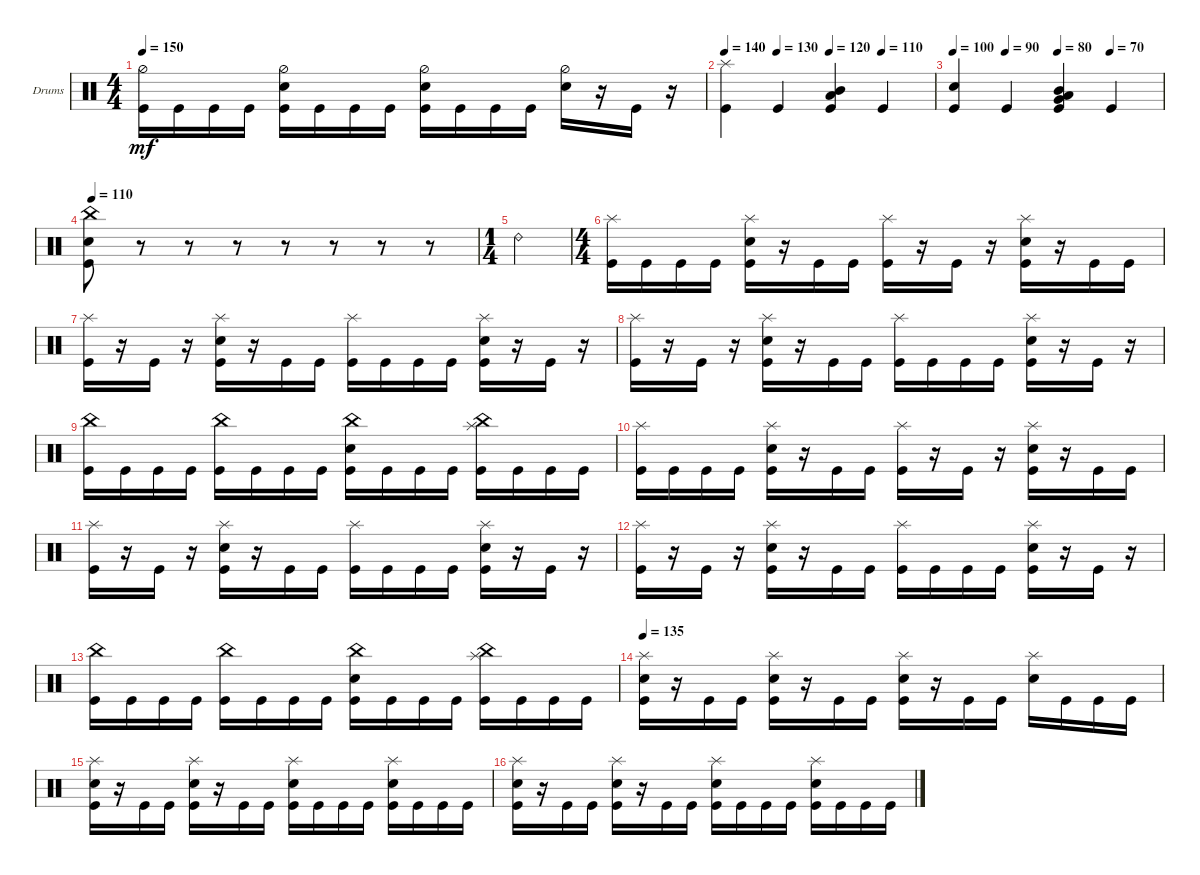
\defaultSystemsLayout 4
\bracketExtendMode groupsimilarinstruments
\firstSystemTrackNameOrientation horizontal
\otherSystemsTrackNameOrientation horizontal
\track ("Drumkit" "Drums") {instrument percussion}
\staff {score}
\articulation defaults
\ts (4 4)
\tempo 150
\clef neutral
\ks c
("Hi-Hat (half)" "Kick (hit)").16{dy mf} "Kick (hit)".16 "Kick (hit)".16 "Kick (hit)".16 ("Hi-Hat (half)" "Snare (hit) 2" "Kick (hit)").16 "Kick (hit)".16 "Kick (hit)".16 "Kick (hit)".16 ("Hi-Hat (half)" "Kick (hit)" "Snare (hit) 2").16 "Kick (hit)".16 "Kick (hit)".16 "Kick (hit)".16 ("Hi-Hat (half)" "Snare (hit) 2").16 r.16 "Kick (hit)".16 r.16 |
\tempo 140
\tempo (130 0.25)
\tempo (120 0.5)
\tempo (110 0.75)
("Kick (hit)" "Splash (hit)").4 "Kick (hit)".4 ("Kick (hit)" "Mid Tom (hit)" "Low Tom (hit)").4 "Kick (hit)".4 |
\tempo 100
\tempo (90 0.25)
\tempo (80 0.5)
\tempo (70 0.75)
("Kick (hit)" "Snare (hit) 2").4 "Kick (hit)".4 ("Kick (hit)" "Low Tom (hit)" "Mid Tom (hit)" "Very Low Tom (hit)").4 "Kick (hit)".4 |
\tempo 110
("Kick (hit)" "Snare (hit) 2" "China (hit)").8 r.8 r.8 r.8 r.8 r.8 r.8 r.8 |
\ts (1 4)
"Ride (bell) 2".4 |
\ts (4 4)
("Kick (hit)" "Splash (hit)").16 "Kick (hit)".16 "Kick (hit)".16 "Kick (hit)".16 ("Kick (hit)" "Splash (hit)" "Snare (hit) 2").16 r.16 "Kick (hit)".16 "Kick (hit)".16 ("Kick (hit)" "Splash (hit)").16 r.16 "Kick (hit)".16 r.16 ("Kick (hit)" "Splash (hit)" "Snare (hit) 2").16 r.16 "Kick (hit)".16 "Kick (hit)".16 |
("Kick (hit)" "Splash (hit)").16 r.16 "Kick (hit)".16 r.16 ("Kick (hit)" "Splash (hit)" "Snare (hit) 2").16 r.16 "Kick (hit)".16 "Kick (hit)".16 ("Splash (hit)" "Kick (hit)").16 "Kick (hit)".16 "Kick (hit)".16 "Kick (hit)".16 ("Kick (hit)" "Splash (hit)" "Snare (hit) 2").16 r.16 "Kick (hit)".16 r.16 |
("Kick (hit)" "Splash (hit)").16 r.16 "Kick (hit)".16 r.16 ("Kick (hit)" "Splash (hit)" "Snare (hit) 2").16 r.16 "Kick (hit)".16 "Kick (hit)".16 ("Splash (hit)" "Kick (hit)").16 "Kick (hit)".16 "Kick (hit)".16 "Kick (hit)".16 ("Kick (hit)" "Splash (hit)" "Snare (hit) 2").16 r.16 "Kick (hit)".16 r.16 |
("Kick (hit)" "China (hit)").16 "Kick (hit)".16 "Kick (hit)".16 "Kick (hit)".16 ("Kick (hit)" "China (hit)").16 "Kick (hit)".16 "Kick (hit)".16 "Kick (hit)".16 ("Kick (hit)" "China (hit)" "Snare (hit) 2").16 "Kick (hit)".16 "Kick (hit)".16 "Kick (hit)".16 ("Kick (hit)" "China (hit)" "Splash (hit)").16 "Kick (hit)".16 "Kick (hit)".16 "Kick (hit)".16 |
("Kick (hit)" "Splash (hit)").16 "Kick (hit)".16 "Kick (hit)".16 "Kick (hit)".16 ("Kick (hit)" "Splash (hit)" "Snare (hit) 2").16 r.16 "Kick (hit)".16 "Kick (hit)".16 ("Kick (hit)" "Splash (hit)").16 r.16 "Kick (hit)".16 r.16 ("Kick (hit)" "Splash (hit)" "Snare (hit) 2").16 r.16 "Kick (hit)".16 "Kick (hit)".16 |
("Kick (hit)" "Splash (hit)").16 r.16 "Kick (hit)".16 r.16 ("Kick (hit)" "Splash (hit)" "Snare (hit) 2").16 r.16 "Kick (hit)".16 "Kick (hit)".16 ("Splash (hit)" "Kick (hit)").16 "Kick (hit)".16 "Kick (hit)".16 "Kick (hit)".16 ("Kick (hit)" "Splash (hit)" "Snare (hit) 2").16 r.16 "Kick (hit)".16 r.16 |
("Kick (hit)" "Splash (hit)").16 r.16 "Kick (hit)".16 r.16 ("Kick (hit)" "Splash (hit)" "Snare (hit) 2").16 r.16 "Kick (hit)".16 "Kick (hit)".16 ("Splash (hit)" "Kick (hit)").16 "Kick (hit)".16 "Kick (hit)".16 "Kick (hit)".16 ("Kick (hit)" "Splash (hit)" "Snare (hit) 2").16 r.16 "Kick (hit)".16 r.16 |
("Kick (hit)" "China (hit)").16 "Kick (hit)".16 "Kick (hit)".16 "Kick (hit)".16 ("Kick (hit)" "China (hit)").16 "Kick (hit)".16 "Kick (hit)".16 "Kick (hit)".16 ("Kick (hit)" "China (hit)" "Snare (hit) 2").16 "Kick (hit)".16 "Kick (hit)".16 "Kick (hit)".16 ("Kick (hit)" "China (hit)" "Splash (hit)").16 "Kick (hit)".16 "Kick (hit)".16 "Kick (hit)".16 |
\tempo 135
("Kick (hit)" "Splash (hit)" "Snare (hit) 2").16 r.16 "Kick (hit)".16 "Kick (hit)".16 ("Kick (hit)" "Splash (hit)" "Snare (hit) 2").16 r.16 "Kick (hit)".16 "Kick (hit)".16 ("Kick (hit)" "Splash (hit)" "Snare (hit) 2").16 r.16 "Kick (hit)".16 "Kick (hit)".16 ("Splash (hit)" "Snare (hit) 2").16 "Kick (hit)".16 "Kick (hit)".16 "Kick (hit)".16 |
("Kick (hit)" "Splash (hit)" "Snare (hit) 2").16 r.16 "Kick (hit)".16 "Kick (hit)".16 ("Kick (hit)" "Splash (hit)" "Snare (hit) 2").16 r.16 "Kick (hit)".16 "Kick (hit)".16 ("Kick (hit)" "Splash (hit)" "Snare (hit) 2").16 "Kick (hit)".16 "Kick (hit)".16 "Kick (hit)".16 ("Kick (hit)" "Splash (hit)" "Snare (hit) 2").16 "Kick (hit)".16 "Kick (hit)".16 "Kick (hit)".16 |
("Kick (hit)" "Splash (hit)" "Snare (hit) 2").16 r.16 "Kick (hit)".16 "Kick (hit)".16 ("Kick (hit)" "Splash (hit)" "Snare (hit) 2").16 r.16 "Kick (hit)".16 "Kick (hit)".16 ("Kick (hit)" "Splash (hit)" "Snare (hit) 2").16 "Kick (hit)".16 "Kick (hit)".16 "Kick (hit)".16 ("Kick (hit)" "Splash (hit)" "Snare (hit) 2").16 "Kick (hit)".16 "Kick (hit)".16 "Kick (hit)".16
